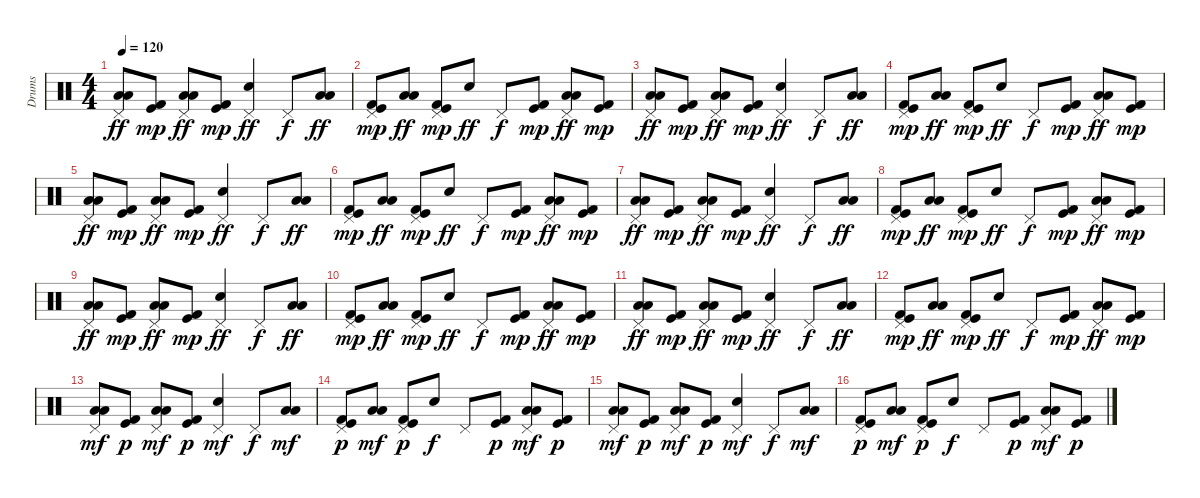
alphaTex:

\track ("Drums" "Drums") {instrument percussion}
\staff {score}
\articulation defaults
\ts (4 4)
\tempo 120
\clef neutral
\ks c
("Low Tom (hit)" "Low Floor Tom (hit)" "Pedal Hi-Hat (hit)").8{dy ff} ("Kick (hit)" "Kick (hit) 2").8{dy mp} ("Low Tom (hit)" "Low Floor Tom (hit)" "Pedal Hi-Hat (hit)").8{dy ff} ("Kick (hit)" "Kick (hit) 2").8{dy mp} ("Snare (hit) 2" "Pedal Hi-Hat (hit)").4{dy ff} "Pedal Hi-Hat (hit)".8{dy f} ("Low Tom (hit)" "Low Floor Tom (hit)").8{dy ff} |
("Kick (hit)" "Kick (hit) 2" "Pedal Hi-Hat (hit)").8{dy mp} ("Low Tom (hit)" "Low Floor Tom (hit)").8{dy ff} ("Kick (hit)" "Kick (hit) 2" "Pedal Hi-Hat (hit)").8{dy mp} "Snare (hit) 2".8{dy ff} "Pedal Hi-Hat (hit)".8{dy f} ("Kick (hit)" "Kick (hit) 2").8{dy mp} ("Low Tom (hit)" "Low Floor Tom (hit)" "Pedal Hi-Hat (hit)").8{dy ff} ("Kick (hit)" "Kick (hit) 2").8{dy mp} |
("Low Tom (hit)" "Low Floor Tom (hit)" "Pedal Hi-Hat (hit)").8{dy ff} ("Kick (hit)" "Kick (hit) 2").8{dy mp} ("Low Tom (hit)" "Low Floor Tom (hit)" "Pedal Hi-Hat (hit)").8{dy ff} ("Kick (hit)" "Kick (hit) 2").8{dy mp} ("Snare (hit) 2" "Pedal Hi-Hat (hit)").4{dy ff} "Pedal Hi-Hat (hit)".8{dy f} ("Low Tom (hit)" "Low Floor Tom (hit)").8{dy ff} |
("Kick (hit)" "Kick (hit) 2" "Pedal Hi-Hat (hit)").8{dy mp} ("Low Tom (hit)" "Low Floor Tom (hit)").8{dy ff} ("Kick (hit)" "Kick (hit) 2" "Pedal Hi-Hat (hit)").8{dy mp} "Snare (hit) 2".8{dy ff} "Pedal Hi-Hat (hit)".8{dy f} ("Kick (hit)" "Kick (hit) 2").8{dy mp} ("Low Tom (hit)" "Low Floor Tom (hit)" "Pedal Hi-Hat (hit)").8{dy ff} ("Kick (hit)" "Kick (hit) 2").8{dy mp} |
("Low Tom (hit)" "Low Floor Tom (hit)" "Pedal Hi-Hat (hit)").8{dy ff} ("Kick (hit)" "Kick (hit) 2").8{dy mp} ("Low Tom (hit)" "Low Floor Tom (hit)" "Pedal Hi-Hat (hit)").8{dy ff} ("Kick (hit)" "Kick (hit) 2").8{dy mp} ("Snare (hit) 2" "Pedal Hi-Hat (hit)").4{dy ff} "Pedal Hi-Hat (hit)".8{dy f} ("Low Tom (hit)" "Low Floor Tom (hit)").8{dy ff} |
("Kick (hit)" "Kick (hit) 2" "Pedal Hi-Hat (hit)").8{dy mp} ("Low Tom (hit)" "Low Floor Tom (hit)").8{dy ff} ("Kick (hit)" "Kick (hit) 2" "Pedal Hi-Hat (hit)").8{dy mp} "Snare (hit) 2".8{dy ff} "Pedal Hi-Hat (hit)".8{dy f} ("Kick (hit)" "Kick (hit) 2").8{dy mp} ("Low Tom (hit)" "Low Floor Tom (hit)" "Pedal Hi-Hat (hit)").8{dy ff} ("Kick (hit)" "Kick (hit) 2").8{dy mp} |
("Low Tom (hit)" "Low Floor Tom (hit)" "Pedal Hi-Hat (hit)").8{dy ff} ("Kick (hit)" "Kick (hit) 2").8{dy mp} ("Low Tom (hit)" "Low Floor Tom (hit)" "Pedal Hi-Hat (hit)").8{dy ff} ("Kick (hit)" "Kick (hit) 2").8{dy mp} ("Snare (hit) 2" "Pedal Hi-Hat (hit)").4{dy ff} "Pedal Hi-Hat (hit)".8{dy f} ("Low Tom (hit)" "Low Floor Tom (hit)").8{dy ff} |
("Kick (hit)" "Kick (hit) 2" "Pedal Hi-Hat (hit)").8{dy mp} ("Low Tom (hit)" "Low Floor Tom (hit)").8{dy ff} ("Kick (hit)" "Kick (hit) 2" "Pedal Hi-Hat (hit)").8{dy mp} "Snare (hit) 2".8{dy ff} "Pedal Hi-Hat (hit)".8{dy f} ("Kick (hit)" "Kick (hit) 2").8{dy mp} ("Low Tom (hit)" "Low Floor Tom (hit)" "Pedal Hi-Hat (hit)").8{dy ff} ("Kick (hit)" "Kick (hit) 2").8{dy mp} |
("Low Tom (hit)" "Low Floor Tom (hit)" "Pedal Hi-Hat (hit)").8{dy ff} ("Kick (hit)" "Kick (hit) 2").8{dy mp} ("Low Tom (hit)" "Low Floor Tom (hit)" "Pedal Hi-Hat (hit)").8{dy ff} ("Kick (hit)" "Kick (hit) 2").8{dy mp} ("Snare (hit) 2" "Pedal Hi-Hat (hit)").4{dy ff} "Pedal Hi-Hat (hit)".8{dy f} ("Low Tom (hit)" "Low Floor Tom (hit)").8{dy ff} |
("Kick (hit)" "Kick (hit) 2" "Pedal Hi-Hat (hit)").8{dy mp} ("Low Tom (hit)" "Low Floor Tom (hit)").8{dy ff} ("Kick (hit)" "Kick (hit) 2" "Pedal Hi-Hat (hit)").8{dy mp} "Snare (hit) 2".8{dy ff} "Pedal Hi-Hat (hit)".8{dy f} ("Kick (hit)" "Kick (hit) 2").8{dy mp} ("Low Tom (hit)" "Low Floor Tom (hit)" "Pedal Hi-Hat (hit)").8{dy ff} ("Kick (hit)" "Kick (hit) 2").8{dy mp} |
("Low Tom (hit)" "Low Floor Tom (hit)" "Pedal Hi-Hat (hit)").8{dy ff} ("Kick (hit)" "Kick (hit) 2").8{dy mp} ("Low Tom (hit)" "Low Floor Tom (hit)" "Pedal Hi-Hat (hit)").8{dy ff} ("Kick (hit)" "Kick (hit) 2").8{dy mp} ("Snare (hit) 2" "Pedal Hi-Hat (hit)").4{dy ff} "Pedal Hi-Hat (hit)".8{dy f} ("Low Tom (hit)" "Low Floor Tom (hit)").8{dy ff} |
("Kick (hit)" "Kick (hit) 2" "Pedal Hi-Hat (hit)").8{dy mp volume 10} ("Low Tom (hit)" "Low Floor Tom (hit)").8{dy ff} ("Kick (hit)" "Kick (hit) 2" "Pedal Hi-Hat (hit)").8{dy mp} "Snare (hit) 2".8{dy ff} "Pedal Hi-Hat (hit)".8{dy f} ("Kick (hit)" "Kick (hit) 2").8{dy mp} ("Low Tom (hit)" "Low Floor Tom (hit)" "Pedal Hi-Hat (hit)").8{dy ff} ("Kick (hit)" "Kick (hit) 2").8{dy mp} |
("Low Tom (hit)" "Low Floor Tom (hit)" "Pedal Hi-Hat (hit)").8{dy mf volume 10} ("Kick (hit)" "Kick (hit) 2").8{dy p} ("Low Tom (hit)" "Low Floor Tom (hit)" "Pedal Hi-Hat (hit)").8{dy mf} ("Kick (hit)" "Kick (hit) 2").8{dy p} ("Snare (hit) 2" "Pedal Hi-Hat (hit)").4{dy mf} "Pedal Hi-Hat (hit)".8{dy f} ("Low Tom (hit)" "Low Floor Tom (hit)").8{dy mf} |
("Kick (hit)" "Kick (hit) 2" "Pedal Hi-Hat (hit)").8{dy p volume 9} ("Low Tom (hit)" "Low Floor Tom (hit)").8{dy mf} ("Kick (hit)" "Kick (hit) 2" "Pedal Hi-Hat (hit)").8{dy p} "Snare (hit) 2".8{dy f} "Pedal Hi-Hat (hit)".8 ("Kick (hit)" "Kick (hit) 2").8{dy p} ("Low Tom (hit)" "Low Floor Tom (hit)" "Pedal Hi-Hat (hit)").8{dy mf} ("Kick (hit)" "Kick (hit) 2").8{dy p} |
("Low Tom (hit)" "Low Floor Tom (hit)" "Pedal Hi-Hat (hit)").8{dy mf} ("Kick (hit)" "Kick (hit) 2").8{dy p} ("Low Tom (hit)" "Low Floor Tom (hit)" "Pedal Hi-Hat (hit)").8{dy mf} ("Kick (hit)" "Kick (hit) 2").8{dy p} ("Snare (hit) 2" "Pedal Hi-Hat (hit)").4{dy mf} "Pedal Hi-Hat (hit)".8{dy f} ("Low Tom (hit)" "Low Floor Tom (hit)").8{dy mf} |
("Kick (hit)" "Kick (hit) 2" "Pedal Hi-Hat (hit)").8{dy p} ("Low Tom (hit)" "Low Floor Tom (hit)").8{dy mf} ("Kick (hit)" "Kick (hit) 2" "Pedal Hi-Hat (hit)").8{dy p} "Snare (hit) 2".8{dy f} "Pedal Hi-Hat (hit)".8 ("Kick (hit)" "Kick (hit) 2").8{dy p} ("Low Tom (hit)" "Low Floor Tom (hit)" "Pedal Hi-Hat (hit)").8{dy mf} ("Kick (hit)" "Kick (hit) 2").8{dy p}
